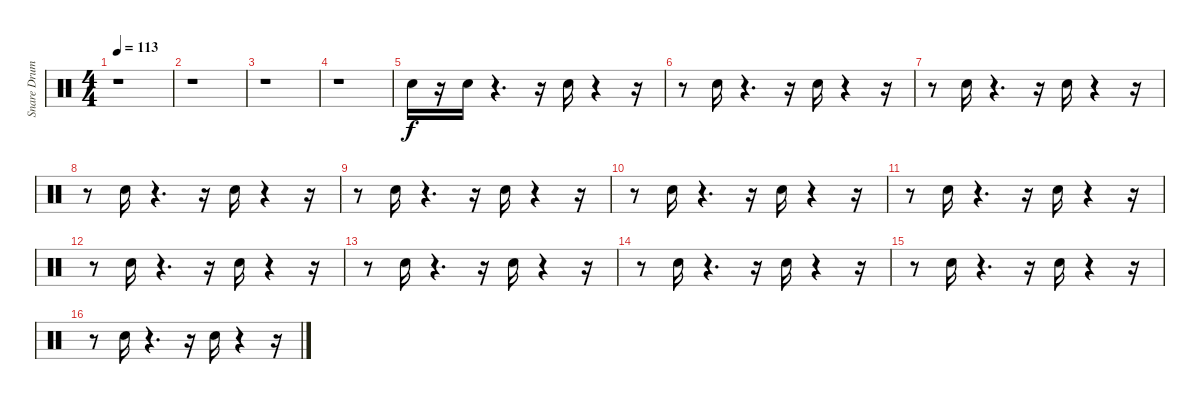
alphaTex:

\track ("Snare Drum" "Snare Drum") {instrument percussion}
\staff {score}
\articulation defaults
\ts (4 4)
\tempo 113
\clef neutral
\ks c
r.1{dy f} |
r.1 |
r.1 |
r.1 |
"Snare (hit) 2".16 r.16 "Snare (hit) 2".16 r.4{d} r.16 "Snare (hit) 2".16 r.4 r.16 |
r.8 "Snare (hit) 2".16 r.4{d} r.16 "Snare (hit) 2".16 r.4 r.16 |
r.8 "Snare (hit) 2".16 r.4{d} r.16 "Snare (hit) 2".16 r.4 r.16 |
r.8 "Snare (hit) 2".16 r.4{d} r.16 "Snare (hit) 2".16 r.4 r.16 |
r.8 "Snare (hit) 2".16 r.4{d} r.16 "Snare (hit) 2".16 r.4 r.16 |
r.8 "Snare (hit) 2".16 r.4{d} r.16 "Snare (hit) 2".16 r.4 r.16 |
r.8 "Snare (hit) 2".16 r.4{d} r.16 "Snare (hit) 2".16 r.4 r.16 |
r.8 "Snare (hit) 2".16 r.4{d} r.16 "Snare (hit) 2".16 r.4 r.16 |
r.8 "Snare (hit) 2".16 r.4{d} r.16 "Snare (hit) 2".16 r.4 r.16 |
r.8 "Snare (hit) 2".16 r.4{d} r.16 "Snare (hit) 2".16 r.4 r.16 |
r.8 "Snare (hit) 2".16 r.4{d} r.16 "Snare (hit) 2".16 r.4 r.16 |
r.8 "Snare (hit) 2".16 r.4{d} r.16 "Snare (hit) 2".16 r.4 r.16
